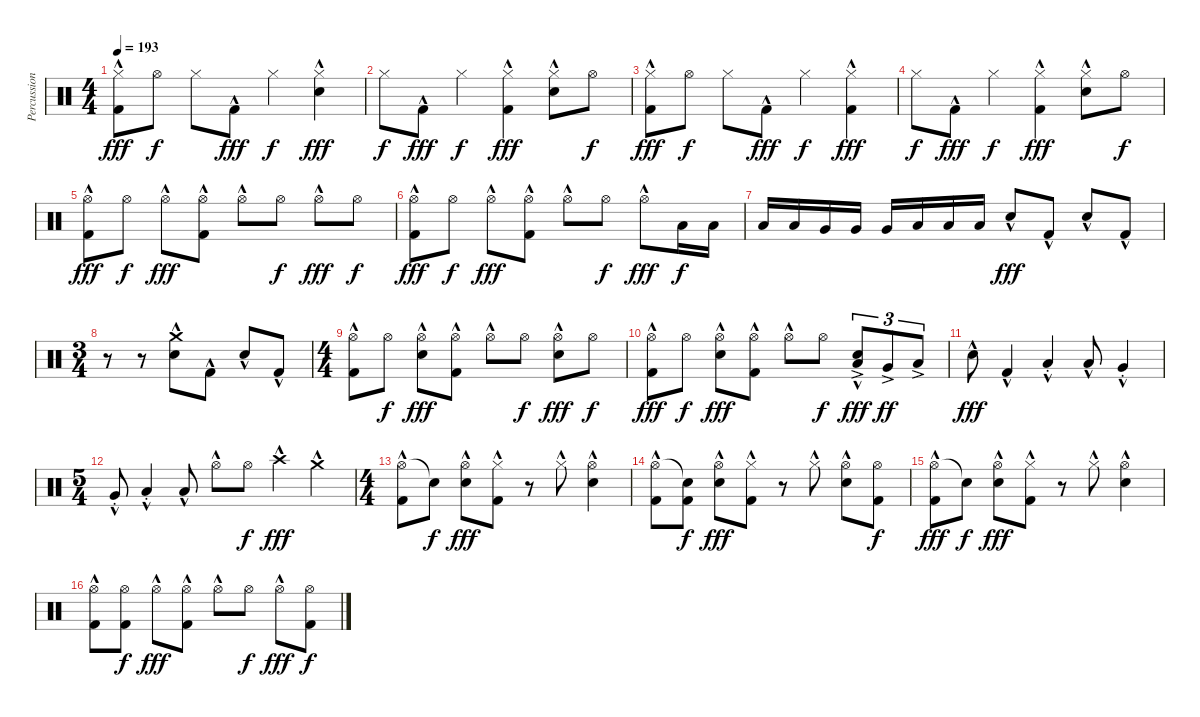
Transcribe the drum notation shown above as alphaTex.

\track ("Percussion" "Percussion") {instrument percussion}
\staff {score}
\articulation defaults
\ts (4 4)
\tempo 193
\clef neutral
\ks c
("Hi-Hat (closed)" "Kick (hit) 2"{hac}).8{dy fff} "Hi-Hat (open)".8{dy f} "Hi-Hat (closed)".8 "Kick (hit) 2"{hac}.8{dy fff} "Hi-Hat (closed)".4{dy f} ("Hi-Hat (closed)" "Electric Snare (hit)"{hac}).4{dy fff} |
"Hi-Hat (closed)".8{dy f} "Kick (hit) 2"{hac}.8{dy fff} "Hi-Hat (closed)".4{dy f} ("Hi-Hat (closed)" "Kick (hit) 2"{hac}).4{dy fff} ("Hi-Hat (closed)" "Electric Snare (hit)"{hac}).8 "Hi-Hat (open)".8{dy f} |
("Hi-Hat (closed)" "Kick (hit) 2"{hac}).8{dy fff} "Hi-Hat (open)".8{dy f} "Hi-Hat (closed)".8 "Kick (hit) 2"{hac}.8{dy fff} "Hi-Hat (closed)".4{dy f} ("Hi-Hat (closed)" "Kick (hit) 2"{hac}).4{dy fff} |
"Hi-Hat (closed)".8{dy f} "Kick (hit) 2"{hac}.8{dy fff} "Hi-Hat (closed)".4{dy f} ("Hi-Hat (closed)" "Kick (hit) 2"{hac}).4{dy fff} ("Hi-Hat (closed)" "Electric Snare (hit)"{hac}).8 "Hi-Hat (open)".8{dy f} |
("Hi-Hat (open)"{hac} "Kick (hit) 2"{hac}).8{dy fff} "Hi-Hat (open)".8{dy f} "Hi-Hat (open)"{hac}.8{dy fff} ("Hi-Hat (open)" "Kick (hit) 2"{hac}).8 "Hi-Hat (open)"{hac}.8 "Hi-Hat (open)".8{dy f} "Hi-Hat (open)"{hac}.8{dy fff} "Hi-Hat (open)".8{dy f} |
("Hi-Hat (open)"{hac} "Kick (hit) 2"{hac}).8{dy fff} "Hi-Hat (open)".8{dy f} "Hi-Hat (open)"{hac}.8{dy fff} ("Hi-Hat (open)" "Kick (hit) 2"{hac}).8 "Hi-Hat (open)"{hac}.8 "Hi-Hat (open)".8{dy f} "Hi-Hat (open)"{hac}.8{dy fff} "Low Tom (hit)".16{dy f} "Low Tom (hit)".16 |
"Low Tom (hit)".16 "Low Tom (hit)".16 "Very Low Tom (hit)".16 "Very Low Tom (hit)".16 "Very Low Tom (hit)".16 "Low Floor Tom (hit)".16 "Low Floor Tom (hit)".16 "Low Floor Tom (hit)".16 "Electric Snare (hit)"{hac}.8{dy fff} "Kick (hit) 2"{hac}.8 "Electric Snare (hit)"{hac}.8 "Kick (hit) 2"{hac}.8 |
\ts (3 4)
r.8 r.8 ("Crash medium (hit)"{hac} "Electric Snare (hit)"{hac}).8 "Kick (hit) 2"{hac}.8 "Electric Snare (hit)"{hac}.8 "Kick (hit) 2"{hac}.8 |
\ts (4 4)
("Hi-Hat (open)"{hac} "Kick (hit) 2"{hac}).8 "Hi-Hat (open)".8{dy f} ("Hi-Hat (open)"{hac} "Electric Snare (hit)"{hac}).8{dy fff} ("Hi-Hat (open)" "Kick (hit) 2"{hac}).8 "Hi-Hat (open)"{hac}.8 "Hi-Hat (open)".8{dy f} ("Hi-Hat (open)"{hac} "Electric Snare (hit)"{hac}).8{dy fff} "Hi-Hat (open)".8{dy f} |
("Hi-Hat (open)"{hac} "Kick (hit) 2"{hac}).8{dy fff} "Hi-Hat (open)".8{dy f} ("Hi-Hat (open)"{hac} "Electric Snare (hit)"{hac}).8{dy fff} ("Hi-Hat (open)" "Kick (hit) 2"{hac}).8 "Hi-Hat (open)"{hac}.8 "Hi-Hat (open)".8{dy f} ("Low Tom (hit)"{ac} "Electric Snare (hit)"{hac}).8{tu (3 2) dy fff} "Very Low Tom (hit)"{ac}.8{tu (3 2) dy ff} "Low Floor Tom (hit)"{ac}.8{tu (3 2)} |
"Electric Snare (hit)"{hac}.8{dy fff} "Kick (hit) 2"{hac}.4 "Low Tom (hit)"{hac st}.4{balance 16} "Low Tom (hit)"{hac}.8 "Very Low Tom (hit)"{hac st}.4{balance 0} |
\ts (5 4)
"Very Low Tom (hit)"{hac st}.8 "Low Tom (hit)"{hac st}.4{balance 16} "Low Tom (hit)"{hac}.8 "Hi-Hat (open)"{hac}.8{balance 8} "Hi-Hat (open)".8{dy f} "Crash high (hit)"{hac}.4{dy fff} "Crash medium (hit)"{hac}.4 |
\ts (4 4)
("Hi-Hat (open)"{hac} "Kick (hit) 2"{hac}).8 "Snare (hit)"{t}.8{dy f} ("Hi-Hat (open)"{hac} "Electric Snare (hit)"{hac}).8{dy fff} ("Hi-Hat (closed)"{hac} "Kick (hit) 2"{hac}).8 r.8 "Hi-Hat (closed)"{hac}.8 ("Hi-Hat (open)"{hac} "Electric Snare (hit)"{hac}).4 |
("Hi-Hat (open)"{hac} "Kick (hit) 2"{hac}).8 ("Snare (hit)"{t} "Kick (hit) 2").8{dy f} ("Hi-Hat (open)"{hac} "Electric Snare (hit)"{hac}).8{dy fff} ("Hi-Hat (closed)"{hac} "Kick (hit) 2"{hac}).8 r.8 "Hi-Hat (closed)"{hac}.8 ("Hi-Hat (open)"{hac} "Electric Snare (hit)"{hac}).8 ("Hi-Hat (open)" "Kick (hit) 2").8{dy f} |
("Hi-Hat (open)"{hac} "Kick (hit) 2"{hac}).8{dy fff} "Snare (hit)"{t}.8{dy f} ("Hi-Hat (open)"{hac} "Electric Snare (hit)"{hac}).8{dy fff} ("Hi-Hat (closed)"{hac} "Kick (hit) 2"{hac}).8 r.8 "Hi-Hat (closed)"{hac}.8 ("Hi-Hat (open)"{hac} "Electric Snare (hit)"{hac}).4 |
("Hi-Hat (open)"{hac} "Kick (hit) 2"{hac}).8 ("Hi-Hat (open)" "Kick (hit) 2").8{dy f} "Hi-Hat (open)"{hac}.8{dy fff} ("Hi-Hat (open)" "Kick (hit) 2"{hac}).8 "Hi-Hat (open)"{hac}.8 "Hi-Hat (open)".8{dy f} "Hi-Hat (open)"{hac}.8{dy fff} ("Hi-Hat (open)" "Kick (hit) 2").8{dy f}
